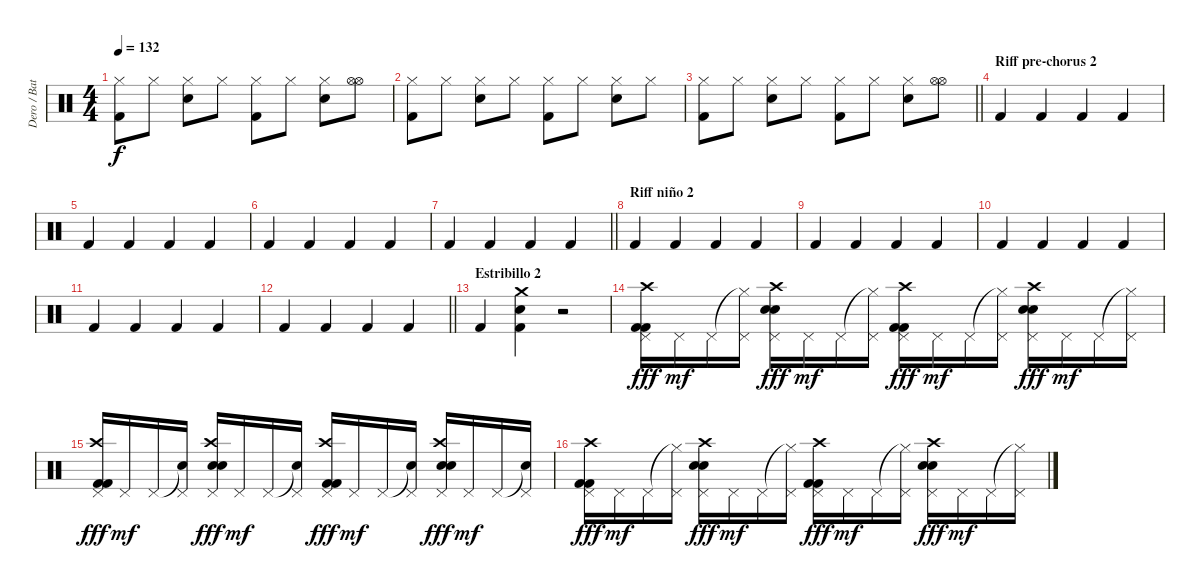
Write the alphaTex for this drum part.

\track ("Dero / Bateria" "Dero / Bat") {instrument percussion}
\staff {score}
\articulation defaults
\ts (4 4)
\tempo 132
\clef neutral
\ks c
("Hi-Hat (closed)" "Kick (hit) 2").8{dy f} "Hi-Hat (closed)".8 ("Hi-Hat (closed)" "Electric Snare (hit)").8 "Hi-Hat (closed)".8 ("Hi-Hat (closed)" "Kick (hit) 2").8 "Hi-Hat (closed)".8 ("Hi-Hat (closed)" "Electric Snare (hit)").8 ("Hi-Hat (open)" "Hi-Hat (open)").8 |
("Hi-Hat (closed)" "Kick (hit) 2").8 "Hi-Hat (closed)".8 ("Hi-Hat (closed)" "Electric Snare (hit)").8 "Hi-Hat (closed)".8 ("Hi-Hat (closed)" "Kick (hit) 2").8 "Hi-Hat (closed)".8 ("Hi-Hat (closed)" "Electric Snare (hit)").8 "Hi-Hat (closed)".8 |
\barLineRight lightlight
("Hi-Hat (closed)" "Kick (hit) 2").8 "Hi-Hat (closed)".8 ("Hi-Hat (closed)" "Electric Snare (hit)").8 "Hi-Hat (closed)".8 ("Hi-Hat (closed)" "Kick (hit) 2").8 "Hi-Hat (closed)".8 ("Hi-Hat (closed)" "Electric Snare (hit)").8 ("Hi-Hat (open)" "Hi-Hat (open)").8 |
\section ("" "Riff pre-chorus 2 ")
"Kick (hit) 2".4 "Kick (hit) 2".4 "Kick (hit) 2".4 "Kick (hit) 2".4 |
"Kick (hit) 2".4 "Kick (hit) 2".4 "Kick (hit) 2".4 "Kick (hit) 2".4 |
"Kick (hit) 2".4 "Kick (hit) 2".4 "Kick (hit) 2".4 "Kick (hit) 2".4 |
\barLineRight lightlight "Kick (hit) 2".4 "Kick (hit) 2".4 "Kick (hit) 2".4 "Kick (hit) 2".4
|
\section ("" "Riff niño 2")
"Kick (hit) 2".4 "Kick (hit) 2".4 "Kick (hit) 2".4 "Kick (hit) 2".4 |
"Kick (hit) 2".4 "Kick (hit) 2".4 "Kick (hit) 2".4 "Kick (hit) 2".4 |
"Kick (hit) 2".4 "Kick (hit) 2".4 "Kick (hit) 2".4 "Kick (hit) 2".4 |
"Kick (hit) 2".4 "Kick (hit) 2".4 "Kick (hit) 2".4 "Kick (hit) 2".4 |
\barLineRight lightlight "Kick (hit) 2".4 "Kick (hit) 2".4 "Kick (hit) 2".4 "Kick (hit) 2".4
|
\section ("" "Estribillo 2")
"Kick (hit) 2".4 ("Crash medium (hit)" "Electric Snare (hit)" "Kick (hit) 2").4 r.2 |
("Crash high (hit)" "Pedal Hi-Hat (hit)" "Kick (hit) 2" "Kick (hit) 2").16{dy fff} "Pedal Hi-Hat (hit)".16{dy mf} "Pedal Hi-Hat (hit)".16 ("Hi-Hat (closed)"{t} "Pedal Hi-Hat (hit)").16 ("Crash high (hit)" "Pedal Hi-Hat (hit)" "Electric Snare (hit)" "Electric Snare (hit)").16{dy fff} "Pedal Hi-Hat (hit)".16{dy mf} "Pedal Hi-Hat (hit)".16 ("Hi-Hat (closed)"{t} "Pedal Hi-Hat (hit)").16 ("Crash high (hit)" "Pedal Hi-Hat (hit)" "Kick (hit) 2" "Kick (hit) 2").16{dy fff} "Pedal Hi-Hat (hit)".16{dy mf} "Pedal Hi-Hat (hit)".16 ("Hi-Hat (closed)"{t} "Pedal Hi-Hat (hit)").16 ("Crash high (hit)" "Pedal Hi-Hat (hit)" "Electric Snare (hit)" "Electric Snare (hit)").16{dy fff} "Pedal Hi-Hat (hit)".16{dy mf} "Pedal Hi-Hat (hit)".16 ("Hi-Hat (closed)"{t} "Pedal Hi-Hat (hit)").16 |
("Crash high (hit)" "Pedal Hi-Hat (hit)" "Kick (hit) 2" "Kick (hit) 2").16{dy fff} "Pedal Hi-Hat (hit)".16{dy mf} "Pedal Hi-Hat (hit)".16 ("Snare (hit)"{t} "Pedal Hi-Hat (hit)").16 ("Crash high (hit)" "Pedal Hi-Hat (hit)" "Electric Snare (hit)" "Electric Snare (hit)").16{dy fff} "Pedal Hi-Hat (hit)".16{dy mf} "Pedal Hi-Hat (hit)".16 ("Snare (hit)"{t} "Pedal Hi-Hat (hit)").16 ("Crash high (hit)" "Pedal Hi-Hat (hit)" "Kick (hit) 2" "Kick (hit) 2").16{dy fff} "Pedal Hi-Hat (hit)".16{dy mf} "Pedal Hi-Hat (hit)".16 ("Snare (hit)"{t} "Pedal Hi-Hat (hit)").16 ("Crash high (hit)" "Pedal Hi-Hat (hit)" "Electric Snare (hit)" "Electric Snare (hit)").16{dy fff} "Pedal Hi-Hat (hit)".16{dy mf} "Pedal Hi-Hat (hit)".16 ("Snare (hit)"{t} "Pedal Hi-Hat (hit)").16 |
("Crash high (hit)" "Pedal Hi-Hat (hit)" "Kick (hit) 2" "Kick (hit) 2").16{dy fff} "Pedal Hi-Hat (hit)".16{dy mf} "Pedal Hi-Hat (hit)".16 ("Hi-Hat (closed)"{t} "Pedal Hi-Hat (hit)").16 ("Crash high (hit)" "Pedal Hi-Hat (hit)" "Electric Snare (hit)" "Electric Snare (hit)").16{dy fff} "Pedal Hi-Hat (hit)".16{dy mf} "Pedal Hi-Hat (hit)".16 ("Hi-Hat (closed)"{t} "Pedal Hi-Hat (hit)").16 ("Crash high (hit)" "Pedal Hi-Hat (hit)" "Kick (hit) 2" "Kick (hit) 2").16{dy fff} "Pedal Hi-Hat (hit)".16{dy mf} "Pedal Hi-Hat (hit)".16 ("Hi-Hat (closed)"{t} "Pedal Hi-Hat (hit)").16 ("Crash high (hit)" "Pedal Hi-Hat (hit)" "Electric Snare (hit)" "Electric Snare (hit)").16{dy fff} "Pedal Hi-Hat (hit)".16{dy mf} "Pedal Hi-Hat (hit)".16 ("Hi-Hat (closed)"{t} "Pedal Hi-Hat (hit)").16
